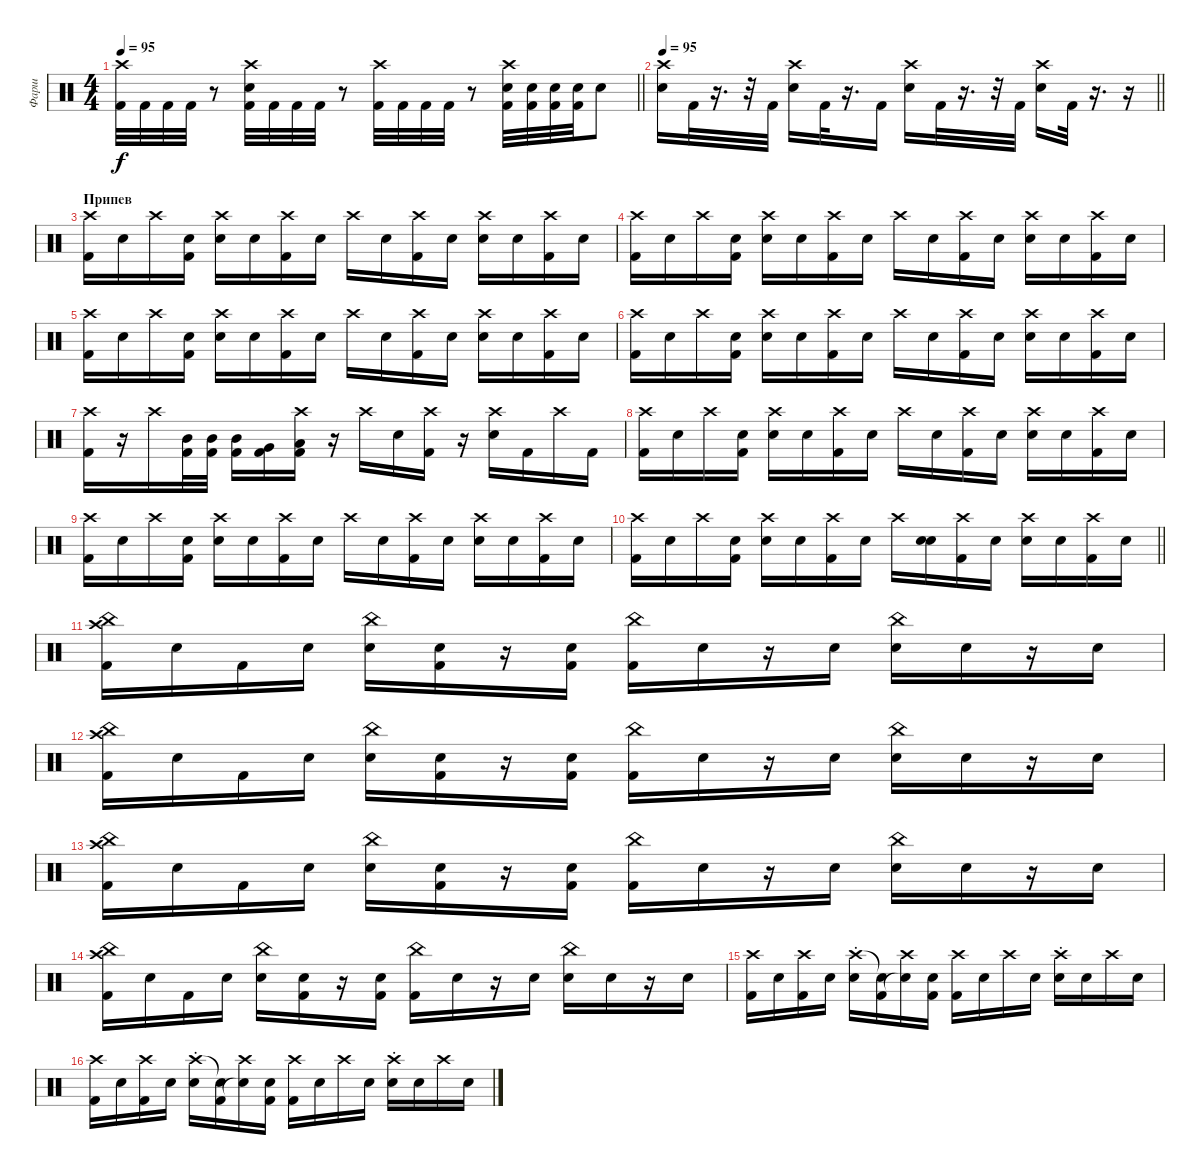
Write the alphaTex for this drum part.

\track ("Фарш" "Фарш") {instrument percussion}
\staff {score}
\articulation defaults
\ts (4 4)
\tempo 95
\clef neutral
\barLineRight lightlight
\ks c
("Crash high (hit)" "Kick (hit) 2").32{dy f} "Kick (hit) 2".32 "Kick (hit) 2".32 "Kick (hit) 2".32 r.8 ("Crash high (hit)" "Electric Snare (hit)" "Kick (hit) 2").32 "Kick (hit) 2".32 "Kick (hit) 2".32 "Kick (hit) 2".32 r.8 ("Crash high (hit)" "Kick (hit) 2").32 "Kick (hit) 2".32 "Kick (hit) 2".32 "Kick (hit) 2".32 r.8 ("Crash high (hit)" "Electric Snare (hit)" "Kick (hit) 2").32 ("Electric Snare (hit)" "Kick (hit) 2").32 ("Electric Snare (hit)" "Kick (hit) 2").32 ("Electric Snare (hit)" "Kick (hit) 2").32 "Electric Snare (hit)".8 |
\section ("" "")
\tempo 95
\barLineRight lightlight
("Crash high (hit)" "Electric Snare (hit)").16 "Kick (hit) 2".32 r.16{d} r.32 "Kick (hit) 2".32 ("Crash high (hit)" "Electric Snare (hit)").16 "Kick (hit) 2".32 r.16{d} "Kick (hit) 2".16 ("Crash high (hit)" "Electric Snare (hit)").16 "Kick (hit) 2".32 r.16{d} r.32 "Kick (hit) 2".32 ("Crash high (hit)" "Electric Snare (hit)").16 "Kick (hit) 2".32 r.16{d} r.16 |
\section ("" "Припев")
("Crash high (hit)" "Kick (hit) 2").16 "Snare (hit)".16 "Crash high (hit)".16 ("Snare (hit)" "Kick (hit) 2").16 ("Crash high (hit)" "Electric Snare (hit)").16 "Snare (hit)".16 ("Crash high (hit)" "Kick (hit) 2").16 "Snare (hit)".16 "Crash high (hit)".16 "Snare (hit)".16 ("Crash high (hit)" "Kick (hit) 2").16 "Snare (hit)".16 ("Crash high (hit)" "Electric Snare (hit)").16 "Snare (hit)".16 ("Crash high (hit)" "Kick (hit) 2").16 "Snare (hit)".16 |
("Crash high (hit)" "Kick (hit) 2").16 "Snare (hit)".16 "Crash high (hit)".16 ("Snare (hit)" "Kick (hit) 2").16 ("Crash high (hit)" "Electric Snare (hit)").16 "Snare (hit)".16 ("Crash high (hit)" "Kick (hit) 2").16 "Snare (hit)".16 "Crash high (hit)".16 "Snare (hit)".16 ("Crash high (hit)" "Kick (hit) 2").16 "Snare (hit)".16 ("Crash high (hit)" "Electric Snare (hit)").16 "Snare (hit)".16 ("Crash high (hit)" "Kick (hit) 2").16 "Snare (hit)".16 |
("Crash high (hit)" "Kick (hit) 2").16 "Snare (hit)".16 "Crash high (hit)".16 ("Snare (hit)" "Kick (hit) 2").16 ("Crash high (hit)" "Electric Snare (hit)").16 "Snare (hit)".16 ("Crash high (hit)" "Kick (hit) 2").16 "Snare (hit)".16 "Crash high (hit)".16 "Snare (hit)".16 ("Crash high (hit)" "Kick (hit) 2").16 "Snare (hit)".16 ("Crash high (hit)" "Electric Snare (hit)").16 "Snare (hit)".16 ("Crash high (hit)" "Kick (hit) 2").16 "Snare (hit)".16 |
("Crash high (hit)" "Kick (hit) 2").16 "Snare (hit)".16 "Crash high (hit)".16 ("Snare (hit)" "Kick (hit) 2").16 ("Crash high (hit)" "Electric Snare (hit)").16 "Snare (hit)".16 ("Crash high (hit)" "Kick (hit) 2").16 "Snare (hit)".16 "Crash high (hit)".16 "Snare (hit)".16 ("Crash high (hit)" "Kick (hit) 2").16 "Snare (hit)".16 ("Crash high (hit)" "Electric Snare (hit)").16 "Snare (hit)".16 ("Crash high (hit)" "Kick (hit) 2").16 "Snare (hit)".16 |
("Crash high (hit)" "Kick (hit) 2").16 r.16 "Crash high (hit)".16 ("Mid Tom (hit)" "Kick (hit) 2").32 ("Mid Tom (hit)" "Kick (hit) 2").32 ("Mid Tom (hit)" "Kick (hit) 2").16 ("Very Low Tom (hit)" "Kick (hit) 2").16 ("Crash high (hit)" "Low Floor Tom (hit)" "Kick (hit) 2").16 r.16 "Crash high (hit)".16 "Electric Snare (hit)".16 ("Crash high (hit)" "Kick (hit) 2").16 r.16 ("Crash high (hit)" "Electric Snare (hit)").16 "Kick (hit) 2".16 "Crash high (hit)".16 "Kick (hit) 2".16 |
("Crash high (hit)" "Kick (hit) 2").16 "Snare (hit)".16 "Crash high (hit)".16 ("Snare (hit)" "Kick (hit) 2").16 ("Crash high (hit)" "Electric Snare (hit)").16 "Snare (hit)".16 ("Crash high (hit)" "Kick (hit) 2").16 "Snare (hit)".16 "Crash high (hit)".16 "Snare (hit)".16 ("Crash high (hit)" "Kick (hit) 2").16 "Snare (hit)".16 ("Crash high (hit)" "Electric Snare (hit)").16 "Snare (hit)".16 ("Crash high (hit)" "Kick (hit) 2").16 "Snare (hit)".16 |
("Crash high (hit)" "Kick (hit) 2").16 "Snare (hit)".16 "Crash high (hit)".16 ("Snare (hit)" "Kick (hit) 2").16 ("Crash high (hit)" "Electric Snare (hit)").16 "Snare (hit)".16 ("Crash high (hit)" "Kick (hit) 2").16 "Snare (hit)".16 "Crash high (hit)".16 "Snare (hit)".16 ("Crash high (hit)" "Kick (hit) 2").16 "Snare (hit)".16 ("Crash high (hit)" "Electric Snare (hit)").16 "Snare (hit)".16 ("Crash high (hit)" "Kick (hit) 2").16 "Snare (hit)".16 |
\barLineRight lightlight
("Crash high (hit)" "Kick (hit) 2").16 "Snare (hit)".16 "Crash high (hit)".16 ("Snare (hit)" "Kick (hit) 2").16 ("Crash high (hit)" "Electric Snare (hit)").16 "Snare (hit)".16 ("Crash high (hit)" "Kick (hit) 2").16 "Snare (hit)".16 "Crash high (hit)".16 ("Snare (hit)" "Electric Snare (hit)").16 ("Crash high (hit)" "Kick (hit) 2").16 "Snare (hit)".16 ("Crash high (hit)" "Electric Snare (hit)").16 "Snare (hit)".16 ("Crash high (hit)" "Kick (hit) 2").16 "Snare (hit)".16 |
("China (hit)" "Crash high (hit)" "Kick (hit) 2").16 "Snare (hit)".16 "Kick (hit) 2".16 "Snare (hit)".16 ("China (hit)" "Electric Snare (hit)").16 ("Snare (hit)" "Kick (hit) 2").16 r.16 ("Snare (hit)" "Kick (hit) 2").16 ("China (hit)" "Kick (hit) 2").16 "Snare (hit)".16 r.16 "Snare (hit)".16 ("China (hit)" "Electric Snare (hit)").16 "Snare (hit)".16 r.16 "Snare (hit)".16 |
("China (hit)" "Crash high (hit)" "Kick (hit) 2").16 "Snare (hit)".16 "Kick (hit) 2".16 "Snare (hit)".16 ("China (hit)" "Electric Snare (hit)").16 ("Snare (hit)" "Kick (hit) 2").16 r.16 ("Snare (hit)" "Kick (hit) 2").16 ("China (hit)" "Kick (hit) 2").16 "Snare (hit)".16 r.16 "Snare (hit)".16 ("China (hit)" "Electric Snare (hit)").16 "Snare (hit)".16 r.16 "Snare (hit)".16 |
("China (hit)" "Crash high (hit)" "Kick (hit) 2").16 "Snare (hit)".16 "Kick (hit) 2".16 "Snare (hit)".16 ("China (hit)" "Electric Snare (hit)").16 ("Snare (hit)" "Kick (hit) 2").16 r.16 ("Snare (hit)" "Kick (hit) 2").16 ("China (hit)" "Kick (hit) 2").16 "Snare (hit)".16 r.16 "Snare (hit)".16 ("China (hit)" "Electric Snare (hit)").16 "Snare (hit)".16 r.16 "Snare (hit)".16 |
("China (hit)" "Crash high (hit)" "Kick (hit) 2").16 "Snare (hit)".16 "Kick (hit) 2".16 "Snare (hit)".16 ("China (hit)" "Electric Snare (hit)").16 ("Snare (hit)" "Kick (hit) 2").16 r.16 ("Snare (hit)" "Kick (hit) 2").16 ("China (hit)" "Kick (hit) 2").16 "Snare (hit)".16 r.16 "Snare (hit)".16 ("China (hit)" "Electric Snare (hit)").16 "Snare (hit)".16 r.16 "Snare (hit)".16 |
("Crash high (hit)" "Kick (hit) 2").16 "Snare (hit)".16 ("Crash high (hit)" "Kick (hit) 2").16 "Snare (hit)".16 ("Crash high (hit)"{st} "Electric Snare (hit)").16 ("Snare (hit)"{t} "Kick (hit) 2").16 ("Crash high (hit)" "Snare (hit)"{t}).16 ("Snare (hit)" "Kick (hit) 2").16 ("Crash high (hit)" "Kick (hit) 2").16 "Snare (hit)".16 "Crash high (hit)".16 "Snare (hit)".16 ("Crash high (hit)"{st} "Electric Snare (hit)").16 "Snare (hit)".16 "Crash high (hit)".16 "Snare (hit)".16 |
("Crash high (hit)" "Kick (hit) 2").16 "Snare (hit)".16 ("Crash high (hit)" "Kick (hit) 2").16 "Snare (hit)".16 ("Crash high (hit)"{st} "Electric Snare (hit)").16 ("Snare (hit)"{t} "Kick (hit) 2").16 ("Crash high (hit)" "Snare (hit)"{t}).16 ("Snare (hit)" "Kick (hit) 2").16 ("Crash high (hit)" "Kick (hit) 2").16 "Snare (hit)".16 "Crash high (hit)".16 "Snare (hit)".16 ("Crash high (hit)"{st} "Electric Snare (hit)").16 "Snare (hit)".16 "Crash high (hit)".16 "Snare (hit)".16
